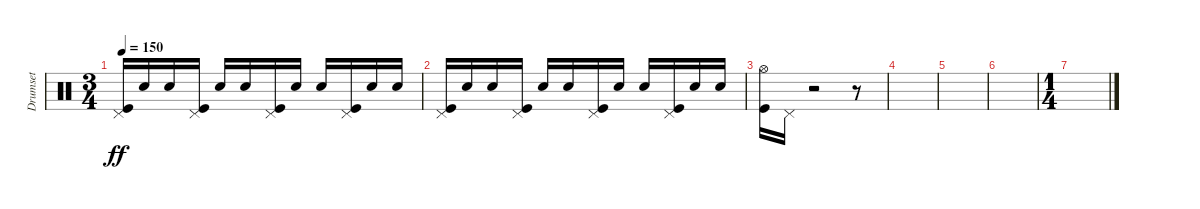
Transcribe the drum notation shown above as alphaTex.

\track ("Drumset" "Drumset") {instrument percussion}
\staff {score}
\articulation defaults
\ts (3 4)
\tempo 150
\clef neutral
\ks c
("Kick (hit)" "Pedal Hi-Hat (hit)").16{dy ff} "Snare (hit) 2".16 "Snare (hit) 2".16 ("Kick (hit)" "Pedal Hi-Hat (hit)").16 "Snare (hit) 2".16 "Snare (hit) 2".16 ("Kick (hit)" "Pedal Hi-Hat (hit)").16 "Snare (hit) 2".16 "Snare (hit) 2".16 ("Kick (hit)" "Pedal Hi-Hat (hit)").16 "Snare (hit) 2".16 "Snare (hit) 2".16 |
("Kick (hit)" "Pedal Hi-Hat (hit)").16 "Snare (hit) 2".16 "Snare (hit) 2".16 ("Kick (hit)" "Pedal Hi-Hat (hit)").16 "Snare (hit) 2".16 "Snare (hit) 2".16 ("Kick (hit)" "Pedal Hi-Hat (hit)").16 "Snare (hit) 2".16 "Snare (hit) 2".16 ("Kick (hit)" "Pedal Hi-Hat (hit)").16 "Snare (hit) 2".16 "Snare (hit) 2".16 |
("Kick (hit)" "Hi-Hat (open)").16 "Pedal Hi-Hat (hit)".16 r.2 r.8 |
|
|
|
\ts (1 4)
